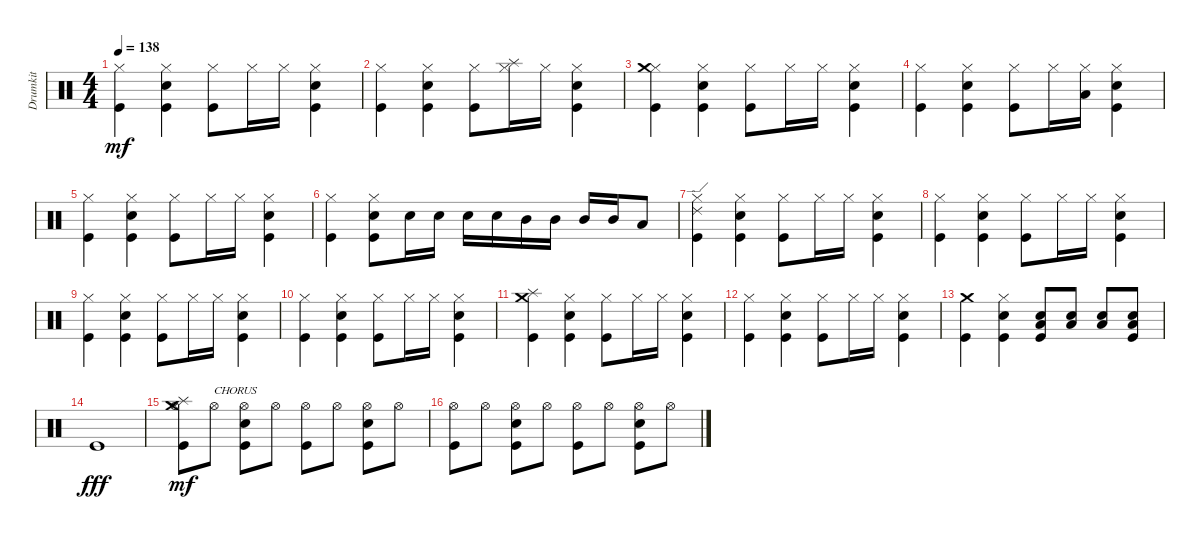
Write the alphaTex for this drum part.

\track ("Drumkit" "Drumkit") {instrument percussion}
\staff {score}
\articulation defaults
\ts (4 4)
\tempo 138
\clef neutral
\ks c
("Hi-Hat (closed)" "Kick (hit)").4{dy mf} ("Hi-Hat (closed)" "Kick (hit)" "Snare (hit) 2").4 ("Hi-Hat (closed)" "Kick (hit)").8 "Hi-Hat (closed)".16 "Hi-Hat (closed)".16 ("Hi-Hat (closed)" "Kick (hit)" "Snare (hit) 2").4 |
("Hi-Hat (closed)" "Kick (hit)").4 ("Hi-Hat (closed)" "Kick (hit)" "Snare (hit) 2").4 ("Hi-Hat (closed)" "Kick (hit)").8 ("Hi-Hat (closed)" "Splash (hit)").16 "Hi-Hat (closed)".16 ("Hi-Hat (closed)" "Kick (hit)" "Snare (hit) 2").4 |
("Hi-Hat (closed)" "Kick (hit)" "Crash medium (hit)").4 ("Hi-Hat (closed)" "Kick (hit)" "Snare (hit) 2").4 ("Hi-Hat (closed)" "Kick (hit)").8 "Hi-Hat (closed)".16 "Hi-Hat (closed)".16 ("Hi-Hat (closed)" "Kick (hit)" "Snare (hit) 2").4 |
("Hi-Hat (closed)" "Kick (hit)").4 ("Hi-Hat (closed)" "Kick (hit)" "Snare (hit) 2").4 ("Hi-Hat (closed)" "Kick (hit)").8 "Hi-Hat (closed)".16 ("Hi-Hat (closed)" "Low Tom (hit)").16 ("Hi-Hat (closed)" "Kick (hit)" "Snare (hit) 2").4 |
("Hi-Hat (closed)" "Kick (hit)").4 ("Hi-Hat (closed)" "Kick (hit)" "Snare (hit) 2").4 ("Hi-Hat (closed)" "Kick (hit)").8 "Hi-Hat (closed)".16 "Hi-Hat (closed)".16 ("Hi-Hat (closed)" "Kick (hit)" "Snare (hit) 2").4 |
("Kick (hit)" "Hi-Hat (closed)").4 ("Kick (hit)" "Hi-Hat (closed)" "Snare (hit) 2").8 "Snare (hit) 2".16 "Snare (hit) 2".16 "Snare (hit) 2".16 "Snare (hit) 2".16 "Mid Tom (hit)".16 "Mid Tom (hit)".16 "Mid Tom (hit)".16 "Mid Tom (hit)".16 "Low Tom (hit)".8 |
("Hi-Hat (closed)" "Kick (hit)" "Ride (edge) 2").4 ("Hi-Hat (closed)" "Kick (hit)" "Snare (hit) 2").4 ("Hi-Hat (closed)" "Kick (hit)").8 "Hi-Hat (closed)".16 "Hi-Hat (closed)".16 ("Hi-Hat (closed)" "Kick (hit)" "Snare (hit) 2").4 |
("Hi-Hat (closed)" "Kick (hit)").4 ("Hi-Hat (closed)" "Kick (hit)" "Snare (hit) 2").4 ("Hi-Hat (closed)" "Kick (hit)").8 "Hi-Hat (closed)".16 "Hi-Hat (closed)".16 ("Hi-Hat (closed)" "Kick (hit)" "Snare (hit) 2").4 |
("Hi-Hat (closed)" "Kick (hit)").4 ("Hi-Hat (closed)" "Kick (hit)" "Snare (hit) 2").4 ("Hi-Hat (closed)" "Kick (hit)").8 "Hi-Hat (closed)".16 "Hi-Hat (closed)".16 ("Hi-Hat (closed)" "Kick (hit)" "Snare (hit) 2").4 |
("Hi-Hat (closed)" "Kick (hit)").4 ("Hi-Hat (closed)" "Kick (hit)" "Snare (hit) 2").4 ("Hi-Hat (closed)" "Kick (hit)").8 "Hi-Hat (closed)".16 "Hi-Hat (closed)".16 ("Hi-Hat (closed)" "Kick (hit)" "Snare (hit) 2").4 |
("Kick (hit)" "Crash medium (hit)" "Splash (hit)").4 ("Hi-Hat (closed)" "Kick (hit)" "Snare (hit) 2").4 ("Hi-Hat (closed)" "Kick (hit)").8 "Hi-Hat (closed)".16 "Hi-Hat (closed)".16 ("Hi-Hat (closed)" "Kick (hit)" "Snare (hit) 2").4 |
("Hi-Hat (closed)" "Kick (hit)").4 ("Hi-Hat (closed)" "Kick (hit)" "Snare (hit) 2").4 ("Hi-Hat (closed)" "Kick (hit)").8 "Hi-Hat (closed)".16 "Hi-Hat (closed)".16 ("Hi-Hat (closed)" "Kick (hit)" "Snare (hit) 2").4 |
("Kick (hit)" "Crash medium (hit)").4 ("Hi-Hat (closed)" "Kick (hit)" "Snare (hit) 2").4 ("Kick (hit)" "Snare (hit) 2" "Low Tom (hit)").8 ("Snare (hit) 2" "Low Tom (hit)").8 ("Snare (hit) 2" "Low Tom (hit)").8 ("Kick (hit)" "Snare (hit) 2" "Low Tom (hit)").8 |
"Kick (hit)".1{dy fff} |
("Splash (hit)" "Crash medium (hit)" "Hi-Hat (open)" "Kick (hit)").8{dy mf} "Hi-Hat (open)".8{txt "CHORUS"} ("Snare (hit) 2" "Hi-Hat (open)" "Kick (hit)").8 "Hi-Hat (open)".8 ("Kick (hit)" "Hi-Hat (open)").8 "Hi-Hat (open)".8 ("Snare (hit) 2" "Hi-Hat (open)" "Kick (hit)").8 "Hi-Hat (open)".8 |
("Kick (hit)" "Hi-Hat (open)").8 "Hi-Hat (open)".8 ("Snare (hit) 2" "Hi-Hat (open)" "Kick (hit)").8 "Hi-Hat (open)".8 ("Kick (hit)" "Hi-Hat (open)").8 "Hi-Hat (open)".8 ("Snare (hit) 2" "Hi-Hat (open)" "Kick (hit)").8 "Hi-Hat (open)".8
